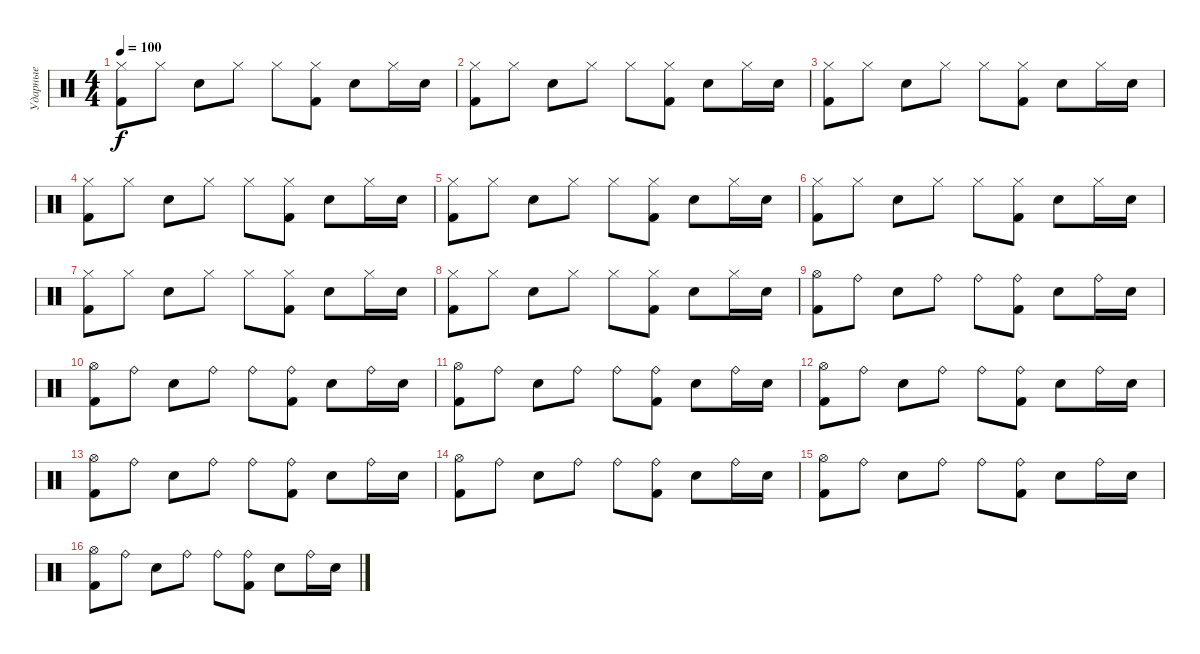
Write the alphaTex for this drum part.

\track ("Ударные" "Ударные") {instrument percussion}
\staff {score}
\articulation defaults
\ts (4 4)
\tempo 100
\clef neutral
\ks c
("Hi-Hat (closed)" "Kick (hit) 2").8{dy f} "Hi-Hat (closed)".8 "Electric Snare (hit)".8 "Hi-Hat (closed)".8 "Hi-Hat (closed)".8 ("Hi-Hat (closed)" "Kick (hit) 2").8 "Electric Snare (hit)".8 "Hi-Hat (closed)".16 "Electric Snare (hit)".16 |
("Hi-Hat (closed)" "Kick (hit) 2").8 "Hi-Hat (closed)".8 "Electric Snare (hit)".8 "Hi-Hat (closed)".8 "Hi-Hat (closed)".8 ("Hi-Hat (closed)" "Kick (hit) 2").8 "Electric Snare (hit)".8 "Hi-Hat (closed)".16 "Electric Snare (hit)".16 |
("Hi-Hat (closed)" "Kick (hit) 2").8 "Hi-Hat (closed)".8 "Electric Snare (hit)".8 "Hi-Hat (closed)".8 "Hi-Hat (closed)".8 ("Hi-Hat (closed)" "Kick (hit) 2").8 "Electric Snare (hit)".8 "Hi-Hat (closed)".16 "Electric Snare (hit)".16 |
("Hi-Hat (closed)" "Kick (hit) 2").8 "Hi-Hat (closed)".8 "Electric Snare (hit)".8 "Hi-Hat (closed)".8 "Hi-Hat (closed)".8 ("Hi-Hat (closed)" "Kick (hit) 2").8 "Electric Snare (hit)".8 "Hi-Hat (closed)".16 "Electric Snare (hit)".16 |
("Hi-Hat (closed)" "Kick (hit) 2").8 "Hi-Hat (closed)".8 "Electric Snare (hit)".8 "Hi-Hat (closed)".8 "Hi-Hat (closed)".8 ("Hi-Hat (closed)" "Kick (hit) 2").8 "Electric Snare (hit)".8 "Hi-Hat (closed)".16 "Electric Snare (hit)".16 |
("Hi-Hat (closed)" "Kick (hit) 2").8 "Hi-Hat (closed)".8 "Electric Snare (hit)".8 "Hi-Hat (closed)".8 "Hi-Hat (closed)".8 ("Hi-Hat (closed)" "Kick (hit) 2").8 "Electric Snare (hit)".8 "Hi-Hat (closed)".16 "Electric Snare (hit)".16 |
("Hi-Hat (closed)" "Kick (hit) 2").8 "Hi-Hat (closed)".8 "Electric Snare (hit)".8 "Hi-Hat (closed)".8 "Hi-Hat (closed)".8 ("Hi-Hat (closed)" "Kick (hit) 2").8 "Electric Snare (hit)".8 "Hi-Hat (closed)".16 "Electric Snare (hit)".16 |
("Hi-Hat (closed)" "Kick (hit) 2").8 "Hi-Hat (closed)".8 "Electric Snare (hit)".8 "Hi-Hat (closed)".8 "Hi-Hat (closed)".8 ("Hi-Hat (closed)" "Kick (hit) 2").8 "Electric Snare (hit)".8 "Hi-Hat (closed)".16 "Electric Snare (hit)".16 |
("Hi-Hat (open)" "Kick (hit) 2").8 "Ride (bell)".8 "Electric Snare (hit)".8 "Ride (bell)".8 "Ride (bell)".8 ("Ride (bell)" "Kick (hit) 2").8 "Electric Snare (hit)".8 "Ride (bell)".16 "Electric Snare (hit)".16 |
("Hi-Hat (open)" "Kick (hit) 2").8 "Ride (bell)".8 "Electric Snare (hit)".8 "Ride (bell)".8 "Ride (bell)".8 ("Ride (bell)" "Kick (hit) 2").8 "Electric Snare (hit)".8 "Ride (bell)".16 "Electric Snare (hit)".16 |
("Hi-Hat (open)" "Kick (hit) 2").8 "Ride (bell)".8 "Electric Snare (hit)".8 "Ride (bell)".8 "Ride (bell)".8 ("Ride (bell)" "Kick (hit) 2").8 "Electric Snare (hit)".8 "Ride (bell)".16 "Electric Snare (hit)".16 |
("Hi-Hat (open)" "Kick (hit) 2").8 "Ride (bell)".8 "Electric Snare (hit)".8 "Ride (bell)".8 "Ride (bell)".8 ("Ride (bell)" "Kick (hit) 2").8 "Electric Snare (hit)".8 "Ride (bell)".16 "Electric Snare (hit)".16 |
("Hi-Hat (open)" "Kick (hit) 2").8 "Ride (bell)".8 "Electric Snare (hit)".8 "Ride (bell)".8 "Ride (bell)".8 ("Ride (bell)" "Kick (hit) 2").8 "Electric Snare (hit)".8 "Ride (bell)".16 "Electric Snare (hit)".16 |
("Hi-Hat (open)" "Kick (hit) 2").8 "Ride (bell)".8 "Electric Snare (hit)".8 "Ride (bell)".8 "Ride (bell)".8 ("Ride (bell)" "Kick (hit) 2").8 "Electric Snare (hit)".8 "Ride (bell)".16 "Electric Snare (hit)".16 |
("Hi-Hat (open)" "Kick (hit) 2").8 "Ride (bell)".8 "Electric Snare (hit)".8 "Ride (bell)".8 "Ride (bell)".8 ("Ride (bell)" "Kick (hit) 2").8 "Electric Snare (hit)".8 "Ride (bell)".16 "Electric Snare (hit)".16 |
("Hi-Hat (open)" "Kick (hit) 2").8 "Ride (bell)".8 "Electric Snare (hit)".8 "Ride (bell)".8 "Ride (bell)".8 ("Ride (bell)" "Kick (hit) 2").8 "Electric Snare (hit)".8 "Ride (bell)".16 "Electric Snare (hit)".16
